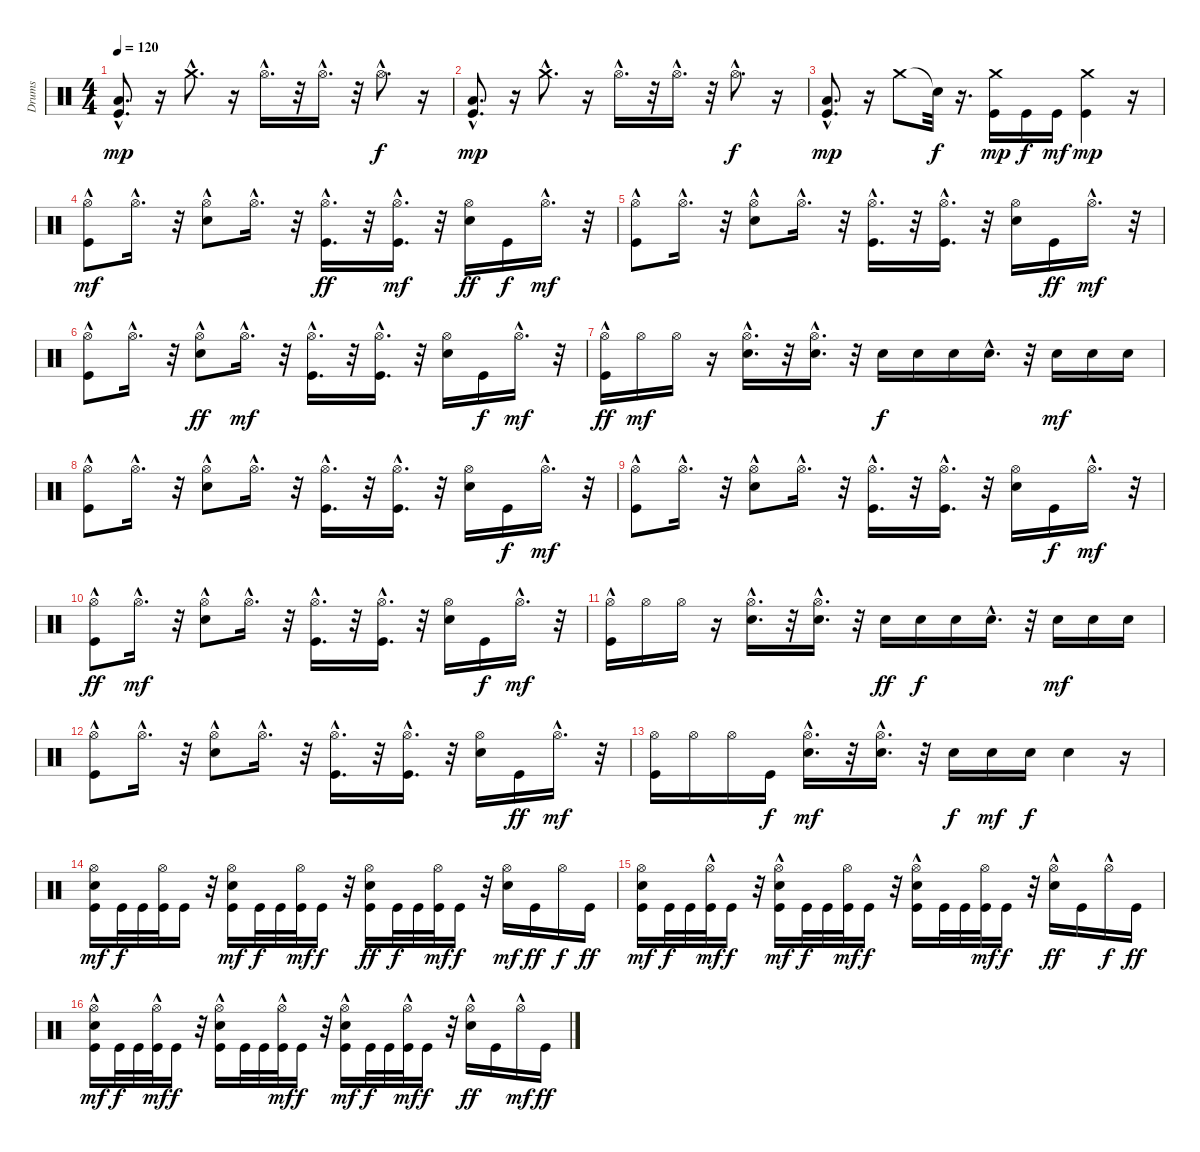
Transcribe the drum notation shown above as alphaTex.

\track ("Drums" "Drums") {instrument percussion}
\staff {score}
\articulation defaults
\ts (4 4)
\tempo 120
\clef neutral
\ks c
("Kick (hit)"{hac} "Low Floor Tom (hit)"{hac}).8{d dy mp} r.16 "Crash medium (hit)"{hac}.8{d} r.16 "Hi-Hat (open)"{hac}.16{d} r.32 "Hi-Hat (open)"{hac}.16{d} r.32 "Hi-Hat (open)"{hac}.8{d dy f} r.16 |
("Kick (hit)"{hac} "Low Floor Tom (hit)"{hac}).8{d dy mp} r.16 "Crash medium (hit)"{hac}.8{d} r.16 "Hi-Hat (open)"{hac}.16{d} r.32 "Hi-Hat (open)"{hac}.16{d} r.32 "Hi-Hat (open)"{hac}.8{d dy f} r.16 |
("Kick (hit)"{hac} "Low Floor Tom (hit)"{hac}).8{d dy mp} r.16 "Crash medium (hit)".8 "Snare (hit)"{t}.32{dy f} r.16{d} ("Kick (hit)" "Crash medium (hit)").16{dy mp} "Kick (hit)".16{dy f} "Kick (hit)".16{dy mf} ("Kick (hit)" "Crash medium (hit)").4{dy mp} r.16 |
("Hi-Hat (open)"{hac} "Kick (hit)"{hac}).8{dy mf} "Hi-Hat (open)"{hac}.16{d} r.32 ("Hi-Hat (open)"{hac} "Electric Snare (hit)").8 "Hi-Hat (open)"{hac}.16{d} r.32 ("Hi-Hat (open)"{hac} "Kick (hit)"{hac}).16{d dy ff} r.32 ("Hi-Hat (open)"{hac} "Kick (hit)"{hac}).16{d dy mf} r.32 ("Hi-Hat (open)" "Electric Snare (hit)").16{dy ff} "Kick (hit)".16{dy f} "Hi-Hat (open)"{hac}.16{d dy mf} r.32 |
("Hi-Hat (open)"{hac} "Kick (hit)"{hac}).8 "Hi-Hat (open)"{hac}.16{d} r.32 ("Hi-Hat (open)"{hac} "Electric Snare (hit)").8 "Hi-Hat (open)"{hac}.16{d} r.32 ("Hi-Hat (open)"{hac} "Kick (hit)"{hac}).16{d} r.32 ("Hi-Hat (open)"{hac} "Kick (hit)"{hac}).16{d} r.32 ("Hi-Hat (open)" "Electric Snare (hit)").16 "Kick (hit)".16{dy ff} "Hi-Hat (open)"{hac}.16{d dy mf} r.32 |
("Hi-Hat (open)"{hac} "Kick (hit)"{hac}).8 "Hi-Hat (open)"{hac}.16{d} r.32 ("Hi-Hat (open)"{hac} "Electric Snare (hit)").8{dy ff} "Hi-Hat (open)"{hac}.16{d dy mf} r.32 ("Hi-Hat (open)"{hac} "Kick (hit)"{hac}).16{d} r.32 ("Hi-Hat (open)"{hac} "Kick (hit)"{hac}).16{d} r.32 ("Hi-Hat (open)" "Electric Snare (hit)").16 "Kick (hit)".16{dy f} "Hi-Hat (open)"{hac}.16{d dy mf} r.32 |
("Hi-Hat (open)" "Kick (hit)"{hac}).16{dy ff} "Hi-Hat (open)".16{dy mf} "Hi-Hat (open)".16 r.16 ("Hi-Hat (open)"{hac} "Electric Snare (hit)"{hac}).16{d} r.32 ("Hi-Hat (open)"{hac} "Electric Snare (hit)"{hac}).16{d} r.32 "Electric Snare (hit)".16{dy f} "Electric Snare (hit)".16 "Electric Snare (hit)".16 "Electric Snare (hit)"{hac}.16{d} r.32 "Electric Snare (hit)".16{dy mf} "Electric Snare (hit)".16 "Electric Snare (hit)".16 |
("Hi-Hat (open)"{hac} "Kick (hit)"{hac}).8 "Hi-Hat (open)"{hac}.16{d} r.32 ("Hi-Hat (open)"{hac} "Electric Snare (hit)").8 "Hi-Hat (open)"{hac}.16{d} r.32 ("Hi-Hat (open)"{hac} "Kick (hit)"{hac}).16{d} r.32 ("Hi-Hat (open)"{hac} "Kick (hit)"{hac}).16{d} r.32 ("Hi-Hat (open)" "Electric Snare (hit)").16 "Kick (hit)".16{dy f} "Hi-Hat (open)"{hac}.16{d dy mf} r.32 |
("Hi-Hat (open)"{hac} "Kick (hit)"{hac}).8 "Hi-Hat (open)"{hac}.16{d} r.32 ("Hi-Hat (open)"{hac} "Electric Snare (hit)").8 "Hi-Hat (open)"{hac}.16{d} r.32 ("Hi-Hat (open)"{hac} "Kick (hit)"{hac}).16{d} r.32 ("Hi-Hat (open)"{hac} "Kick (hit)"{hac}).16{d} r.32 ("Hi-Hat (open)" "Electric Snare (hit)").16 "Kick (hit)".16{dy f} "Hi-Hat (open)"{hac}.16{d dy mf} r.32 |
("Hi-Hat (open)"{hac} "Kick (hit)"{hac}).8{dy ff} "Hi-Hat (open)"{hac}.16{d dy mf} r.32 ("Hi-Hat (open)"{hac} "Electric Snare (hit)").8 "Hi-Hat (open)"{hac}.16{d} r.32 ("Hi-Hat (open)"{hac} "Kick (hit)"{hac}).16{d} r.32 ("Hi-Hat (open)"{hac} "Kick (hit)"{hac}).16{d} r.32 ("Hi-Hat (open)" "Electric Snare (hit)").16 "Kick (hit)".16{dy f} "Hi-Hat (open)"{hac}.16{d dy mf} r.32 |
("Hi-Hat (open)" "Kick (hit)"{hac}).16 "Hi-Hat (open)".16 "Hi-Hat (open)".16 r.16 ("Hi-Hat (open)"{hac} "Electric Snare (hit)"{hac}).16{d} r.32 ("Hi-Hat (open)"{hac} "Electric Snare (hit)"{hac}).16{d} r.32 "Electric Snare (hit)".16{dy ff} "Electric Snare (hit)".16{dy f} "Electric Snare (hit)".16 "Electric Snare (hit)"{hac}.16{d} r.32 "Electric Snare (hit)".16{dy mf} "Electric Snare (hit)".16 "Electric Snare (hit)".16 |
("Hi-Hat (open)"{hac} "Kick (hit)"{hac}).8 "Hi-Hat (open)"{hac}.16{d} r.32 ("Hi-Hat (open)"{hac} "Electric Snare (hit)"{hac}).8 "Hi-Hat (open)"{hac}.16{d} r.32 ("Hi-Hat (open)"{hac} "Kick (hit)"{hac}).16{d} r.32 ("Hi-Hat (open)"{hac} "Kick (hit)"{hac}).16{d} r.32 ("Hi-Hat (open)" "Electric Snare (hit)").16 "Kick (hit)".16{dy ff} "Hi-Hat (open)"{hac}.16{d dy mf} r.32 |
("Hi-Hat (open)" "Kick (hit)").16 "Hi-Hat (open)".16 "Hi-Hat (open)".16 "Kick (hit)".16{dy f} ("Hi-Hat (open)"{hac} "Electric Snare (hit)"{hac}).16{d dy mf} r.32 ("Hi-Hat (open)"{hac} "Electric Snare (hit)"{hac}).16{d} r.32 "Electric Snare (hit)".16{dy f} "Electric Snare (hit)".16{dy mf} "Electric Snare (hit)".16{dy f} "Electric Snare (hit)".4 r.16 |
("Hi-Hat (open)" "Electric Snare (hit)" "Kick (hit)").16{dy mf} "Kick (hit)".32{dy f} "Kick (hit)".32 ("Hi-Hat (open)" "Kick (hit)").32 "Kick (hit)".16 r.32 ("Hi-Hat (open)" "Electric Snare (hit)" "Kick (hit)").16{dy mf} "Kick (hit)".32{dy f} "Kick (hit)".32 ("Hi-Hat (open)" "Kick (hit)").32{dy mf} "Kick (hit)".16{dy f} r.32 ("Hi-Hat (open)" "Electric Snare (hit)" "Kick (hit)").16{dy ff} "Kick (hit)".32{dy f} "Kick (hit)".32 ("Hi-Hat (open)" "Kick (hit)").32{dy mf} "Kick (hit)".16{dy f} r.32 ("Hi-Hat (open)" "Electric Snare (hit)").16{dy mf} "Kick (hit)".16{dy ff} "Hi-Hat (open)".16{dy f} "Kick (hit)".16{dy ff} |
("Hi-Hat (open)" "Electric Snare (hit)" "Kick (hit)").16{dy mf} "Kick (hit)".32{dy f} "Kick (hit)".32 ("Hi-Hat (open)"{hac} "Kick (hit)").32{dy mf} "Kick (hit)".16{dy f} r.32 ("Hi-Hat (open)"{hac} "Electric Snare (hit)" "Kick (hit)").16{dy mf} "Kick (hit)".32{dy f} "Kick (hit)".32 ("Hi-Hat (open)" "Kick (hit)").32{dy mf} "Kick (hit)".16{dy f} r.32 ("Hi-Hat (open)"{hac} "Electric Snare (hit)" "Kick (hit)").16 "Kick (hit)".32 "Kick (hit)".32 ("Hi-Hat (open)" "Kick (hit)").32{dy mf} "Kick (hit)".16{dy f} r.32 ("Hi-Hat (open)"{hac} "Electric Snare (hit)"{hac}).16{dy ff} "Kick (hit)".16 "Hi-Hat (open)"{hac}.16{dy f} "Kick (hit)".16{dy ff} |
("Hi-Hat (open)"{hac} "Electric Snare (hit)"{hac} "Kick (hit)").16{dy mf} "Kick (hit)".32{dy f} "Kick (hit)".32 ("Hi-Hat (open)"{hac} "Kick (hit)").32{dy mf} "Kick (hit)".16{dy f} r.32 ("Hi-Hat (open)"{hac} "Electric Snare (hit)"{hac} "Kick (hit)").16 "Kick (hit)".32 "Kick (hit)".32 ("Hi-Hat (open)"{hac} "Kick (hit)").32{dy mf} "Kick (hit)".16{dy f} r.32 ("Hi-Hat (open)"{hac} "Electric Snare (hit)"{hac} "Kick (hit)").16{dy mf} "Kick (hit)".32{dy f} "Kick (hit)".32 ("Hi-Hat (open)"{hac} "Kick (hit)").32{dy mf} "Kick (hit)".16{dy f} r.32 ("Hi-Hat (open)"{hac} "Electric Snare (hit)"{hac}).16{dy ff} "Kick (hit)".16 "Hi-Hat (open)"{hac}.16{dy mf} "Kick (hit)".16{dy ff}
